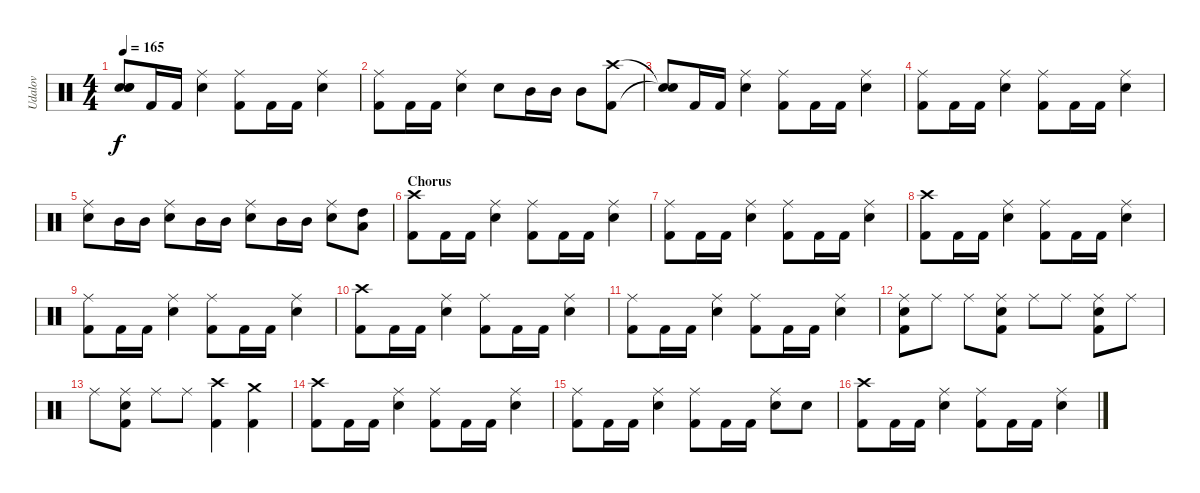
\track ("Udalov" "Udalov") {instrument percussion}
\staff {score}
\articulation defaults
\ts (4 4)
\tempo 165
\clef neutral
\ks c
("Snare (hit)"{t} "Snare (hit)"{t} "Snare (hit)"{t}).8{dy f} "Kick (hit) 2".16 "Kick (hit) 2".16 ("Snare (hit) 2" "Ride (middle)").4 ("Kick (hit) 2" "Ride (middle)").8 "Kick (hit) 2".16 "Kick (hit) 2".16 ("Snare (hit) 2" "Ride (middle)").4 |
("Kick (hit) 2" "Ride (middle)").8 "Kick (hit) 2".16 "Kick (hit) 2".16 ("Snare (hit) 2" "Ride (middle)").4 "Snare (hit) 2".8 "Mid Tom (hit)".16 "Mid Tom (hit)".16 "Mid Tom (hit)".8 ("Kick (hit) 2" "Crash high (hit)").8 |
("Snare (hit)"{t} "Snare (hit)"{t}).8 "Kick (hit) 2".16 "Kick (hit) 2".16 ("Snare (hit) 2" "Ride (middle)").4 ("Kick (hit) 2" "Ride (middle)").8 "Kick (hit) 2".16 "Kick (hit) 2".16 ("Snare (hit) 2" "Ride (middle)").4 |
("Kick (hit) 2" "Ride (middle)").8 "Kick (hit) 2".16 "Kick (hit) 2".16 ("Snare (hit) 2" "Ride (middle)").4 ("Kick (hit) 2" "Ride (middle)").8 "Kick (hit) 2".16 "Kick (hit) 2".16 ("Snare (hit) 2" "Ride (middle)").4 |
("Electric Snare (hit)" "Ride (middle)").8 "Mid Tom (hit)".16 "Mid Tom (hit)".16 ("Electric Snare (hit)" "Ride (middle)").8 "Mid Tom (hit)".16 "Mid Tom (hit)".16 ("Electric Snare (hit)" "Ride (middle)").8 "Mid Tom (hit)".16 "Mid Tom (hit)".16 ("Electric Snare (hit)" "Ride (middle)").8 ("High Tom (hit)" "Low Tom (hit)").8 |
\section ("" "Chorus")
("Kick (hit) 2" "Crash high (hit)").8 "Kick (hit) 2".16 "Kick (hit) 2".16 ("Snare (hit) 2" "Ride (middle)").4 ("Kick (hit) 2" "Ride (middle)").8 "Kick (hit) 2".16 "Kick (hit) 2".16 ("Snare (hit) 2" "Ride (middle)").4 |
("Kick (hit) 2" "Ride (middle)").8 "Kick (hit) 2".16 "Kick (hit) 2".16 ("Snare (hit) 2" "Ride (middle)").4 ("Kick (hit) 2" "Ride (middle)").8 "Kick (hit) 2".16 "Kick (hit) 2".16 ("Snare (hit) 2" "Ride (middle)").4 |
("Kick (hit) 2" "Crash high (hit)").8 "Kick (hit) 2".16 "Kick (hit) 2".16 ("Snare (hit) 2" "Ride (middle)").4 ("Kick (hit) 2" "Ride (middle)").8 "Kick (hit) 2".16 "Kick (hit) 2".16 ("Snare (hit) 2" "Ride (middle)").4 |
("Kick (hit) 2" "Ride (middle)").8 "Kick (hit) 2".16 "Kick (hit) 2".16 ("Snare (hit) 2" "Ride (middle)").4 ("Kick (hit) 2" "Ride (middle)").8 "Kick (hit) 2".16 "Kick (hit) 2".16 ("Snare (hit) 2" "Ride (middle)").4 |
("Kick (hit) 2" "Crash high (hit)").8 "Kick (hit) 2".16 "Kick (hit) 2".16 ("Snare (hit) 2" "Ride (middle)").4 ("Kick (hit) 2" "Ride (middle)").8 "Kick (hit) 2".16 "Kick (hit) 2".16 ("Snare (hit) 2" "Ride (middle)").4 |
("Kick (hit) 2" "Ride (middle)").8 "Kick (hit) 2".16 "Kick (hit) 2".16 ("Snare (hit) 2" "Ride (middle)").4 ("Kick (hit) 2" "Ride (middle)").8 "Kick (hit) 2".16 "Kick (hit) 2".16 ("Snare (hit) 2" "Ride (middle)").4 |
("Electric Snare (hit)" "Ride (middle)" "Kick (hit) 2").8 "Ride (middle)".8 "Ride (middle)".8 ("Electric Snare (hit)" "Ride (middle)" "Kick (hit) 2").8 "Ride (middle)".8 "Ride (middle)".8 ("Electric Snare (hit)" "Ride (middle)" "Kick (hit) 2").8 "Ride (middle)".8 |
"Ride (middle)".8 ("Electric Snare (hit)" "Kick (hit) 2" "Ride (middle)").8 "Ride (middle)".8 "Ride (middle)".8 ("Kick (hit) 2" "Crash high (hit)").4 ("Kick (hit) 2" "Crash medium (hit)").4 |
("Kick (hit) 2" "Crash high (hit)").8 "Kick (hit) 2".16 "Kick (hit) 2".16 ("Snare (hit) 2" "Ride (middle)").4 ("Kick (hit) 2" "Ride (middle)").8 "Kick (hit) 2".16 "Kick (hit) 2".16 ("Snare (hit) 2" "Ride (middle)").4 |
("Kick (hit) 2" "Ride (middle)").8 "Kick (hit) 2".16 "Kick (hit) 2".16 ("Snare (hit) 2" "Ride (middle)").4 ("Kick (hit) 2" "Ride (middle)").8 "Kick (hit) 2".16 "Kick (hit) 2".16 ("Snare (hit) 2" "Ride (middle)").8 "Snare (hit) 2".8 |
("Kick (hit) 2" "Crash high (hit)").8 "Kick (hit) 2".16 "Kick (hit) 2".16 ("Snare (hit) 2" "Ride (middle)").4 ("Kick (hit) 2" "Ride (middle)").8 "Kick (hit) 2".16 "Kick (hit) 2".16 ("Snare (hit) 2" "Ride (middle)").4
